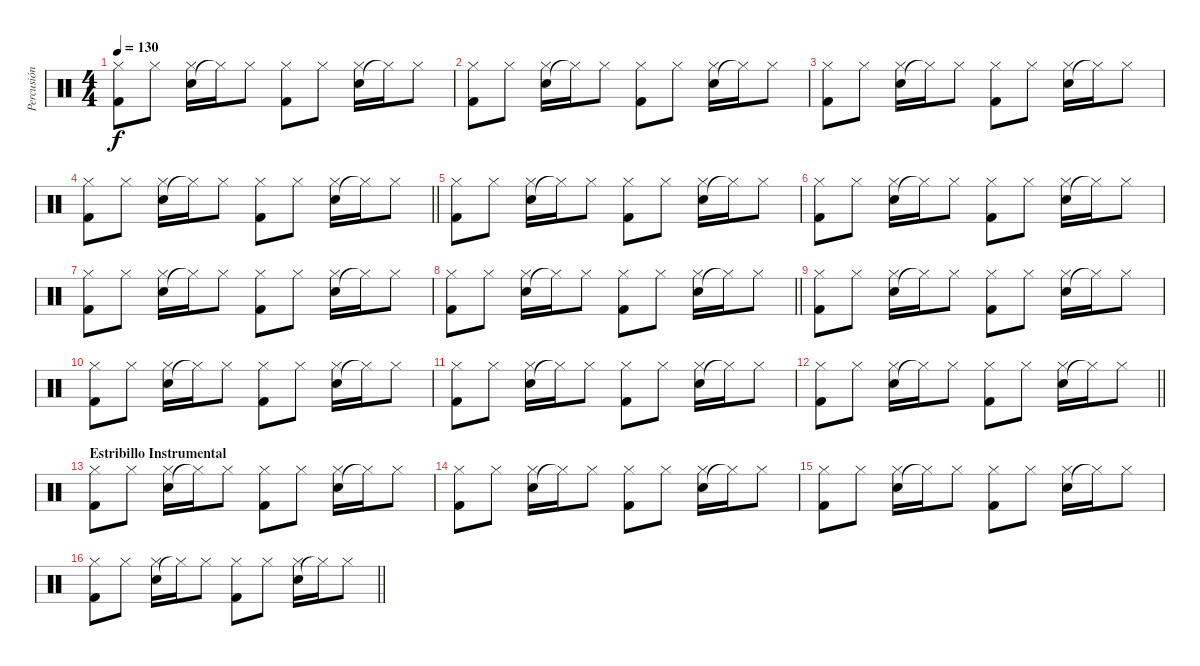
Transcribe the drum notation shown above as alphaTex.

\track ("Percusión" "Percusión") {instrument percussion}
\staff {score}
\articulation defaults
\ts (4 4)
\tempo 130
\clef neutral
\ks c
("Kick (hit) 2" "Hi-Hat (closed)").8{dy f} "Hi-Hat (closed)".8 ("Snare (hit) 2" "Hi-Hat (closed)").16 "Hi-Hat (closed)"{t}.16 "Hi-Hat (closed)".8 ("Kick (hit) 2" "Hi-Hat (closed)").8 "Hi-Hat (closed)".8 ("Snare (hit) 2" "Hi-Hat (closed)").16 "Hi-Hat (closed)"{t}.16 "Hi-Hat (closed)".8 |
("Kick (hit) 2" "Hi-Hat (closed)").8 "Hi-Hat (closed)".8 ("Snare (hit) 2" "Hi-Hat (closed)").16 "Hi-Hat (closed)"{t}.16 "Hi-Hat (closed)".8 ("Kick (hit) 2" "Hi-Hat (closed)").8 "Hi-Hat (closed)".8 ("Snare (hit) 2" "Hi-Hat (closed)").16 "Hi-Hat (closed)"{t}.16 "Hi-Hat (closed)".8 |
("Kick (hit) 2" "Hi-Hat (closed)").8 "Hi-Hat (closed)".8 ("Snare (hit) 2" "Hi-Hat (closed)").16 "Hi-Hat (closed)"{t}.16 "Hi-Hat (closed)".8 ("Kick (hit) 2" "Hi-Hat (closed)").8 "Hi-Hat (closed)".8 ("Snare (hit) 2" "Hi-Hat (closed)").16 "Hi-Hat (closed)"{t}.16 "Hi-Hat (closed)".8 |
\barLineRight lightlight
("Kick (hit) 2" "Hi-Hat (closed)").8 "Hi-Hat (closed)".8 ("Snare (hit) 2" "Hi-Hat (closed)").16 "Hi-Hat (closed)"{t}.16 "Hi-Hat (closed)".8 ("Kick (hit) 2" "Hi-Hat (closed)").8 "Hi-Hat (closed)".8 ("Snare (hit) 2" "Hi-Hat (closed)").16 "Hi-Hat (closed)"{t}.16 "Hi-Hat (closed)".8 |
("Kick (hit) 2" "Hi-Hat (closed)").8 "Hi-Hat (closed)".8 ("Snare (hit) 2" "Hi-Hat (closed)").16 "Hi-Hat (closed)"{t}.16 "Hi-Hat (closed)".8 ("Kick (hit) 2" "Hi-Hat (closed)").8 "Hi-Hat (closed)".8 ("Snare (hit) 2" "Hi-Hat (closed)").16 "Hi-Hat (closed)"{t}.16 "Hi-Hat (closed)".8 |
("Kick (hit) 2" "Hi-Hat (closed)").8 "Hi-Hat (closed)".8 ("Snare (hit) 2" "Hi-Hat (closed)").16 "Hi-Hat (closed)"{t}.16 "Hi-Hat (closed)".8 ("Kick (hit) 2" "Hi-Hat (closed)").8 "Hi-Hat (closed)".8 ("Snare (hit) 2" "Hi-Hat (closed)").16 "Hi-Hat (closed)"{t}.16 "Hi-Hat (closed)".8 |
("Kick (hit) 2" "Hi-Hat (closed)").8 "Hi-Hat (closed)".8 ("Snare (hit) 2" "Hi-Hat (closed)").16 "Hi-Hat (closed)"{t}.16 "Hi-Hat (closed)".8 ("Kick (hit) 2" "Hi-Hat (closed)").8 "Hi-Hat (closed)".8 ("Snare (hit) 2" "Hi-Hat (closed)").16 "Hi-Hat (closed)"{t}.16 "Hi-Hat (closed)".8 |
\barLineRight lightlight
("Kick (hit) 2" "Hi-Hat (closed)").8 "Hi-Hat (closed)".8 ("Snare (hit) 2" "Hi-Hat (closed)").16 "Hi-Hat (closed)"{t}.16 "Hi-Hat (closed)".8 ("Kick (hit) 2" "Hi-Hat (closed)").8 "Hi-Hat (closed)".8 ("Snare (hit) 2" "Hi-Hat (closed)").16 "Hi-Hat (closed)"{t}.16 "Hi-Hat (closed)".8 |
("Kick (hit) 2" "Hi-Hat (closed)").8 "Hi-Hat (closed)".8 ("Snare (hit) 2" "Hi-Hat (closed)").16 "Hi-Hat (closed)"{t}.16 "Hi-Hat (closed)".8 ("Kick (hit) 2" "Hi-Hat (closed)").8 "Hi-Hat (closed)".8 ("Snare (hit) 2" "Hi-Hat (closed)").16 "Hi-Hat (closed)"{t}.16 "Hi-Hat (closed)".8 |
("Kick (hit) 2" "Hi-Hat (closed)").8 "Hi-Hat (closed)".8 ("Snare (hit) 2" "Hi-Hat (closed)").16 "Hi-Hat (closed)"{t}.16 "Hi-Hat (closed)".8 ("Kick (hit) 2" "Hi-Hat (closed)").8 "Hi-Hat (closed)".8 ("Snare (hit) 2" "Hi-Hat (closed)").16 "Hi-Hat (closed)"{t}.16 "Hi-Hat (closed)".8 |
("Kick (hit) 2" "Hi-Hat (closed)").8 "Hi-Hat (closed)".8 ("Snare (hit) 2" "Hi-Hat (closed)").16 "Hi-Hat (closed)"{t}.16 "Hi-Hat (closed)".8 ("Kick (hit) 2" "Hi-Hat (closed)").8 "Hi-Hat (closed)".8 ("Snare (hit) 2" "Hi-Hat (closed)").16 "Hi-Hat (closed)"{t}.16 "Hi-Hat (closed)".8 |
\barLineRight lightlight
("Kick (hit) 2" "Hi-Hat (closed)").8 "Hi-Hat (closed)".8 ("Snare (hit) 2" "Hi-Hat (closed)").16 "Hi-Hat (closed)"{t}.16 "Hi-Hat (closed)".8 ("Kick (hit) 2" "Hi-Hat (closed)").8 "Hi-Hat (closed)".8 ("Snare (hit) 2" "Hi-Hat (closed)").16 "Hi-Hat (closed)"{t}.16 "Hi-Hat (closed)".8 |
\section ("" "Estribillo Instrumental")
("Kick (hit) 2" "Hi-Hat (closed)").8 "Hi-Hat (closed)".8 ("Snare (hit) 2" "Hi-Hat (closed)").16 "Hi-Hat (closed)"{t}.16 "Hi-Hat (closed)".8 ("Kick (hit) 2" "Hi-Hat (closed)").8 "Hi-Hat (closed)".8 ("Snare (hit) 2" "Hi-Hat (closed)").16 "Hi-Hat (closed)"{t}.16 "Hi-Hat (closed)".8 |
("Kick (hit) 2" "Hi-Hat (closed)").8 "Hi-Hat (closed)".8 ("Snare (hit) 2" "Hi-Hat (closed)").16 "Hi-Hat (closed)"{t}.16 "Hi-Hat (closed)".8 ("Kick (hit) 2" "Hi-Hat (closed)").8 "Hi-Hat (closed)".8 ("Snare (hit) 2" "Hi-Hat (closed)").16 "Hi-Hat (closed)"{t}.16 "Hi-Hat (closed)".8 |
("Kick (hit) 2" "Hi-Hat (closed)").8 "Hi-Hat (closed)".8 ("Snare (hit) 2" "Hi-Hat (closed)").16 "Hi-Hat (closed)"{t}.16 "Hi-Hat (closed)".8 ("Kick (hit) 2" "Hi-Hat (closed)").8 "Hi-Hat (closed)".8 ("Snare (hit) 2" "Hi-Hat (closed)").16 "Hi-Hat (closed)"{t}.16 "Hi-Hat (closed)".8 |
\barLineRight lightlight
("Kick (hit) 2" "Hi-Hat (closed)").8 "Hi-Hat (closed)".8 ("Snare (hit) 2" "Hi-Hat (closed)").16 "Hi-Hat (closed)"{t}.16 "Hi-Hat (closed)".8 ("Kick (hit) 2" "Hi-Hat (closed)").8 "Hi-Hat (closed)".8 ("Snare (hit) 2" "Hi-Hat (closed)").16 "Hi-Hat (closed)"{t}.16 "Hi-Hat (closed)".8
